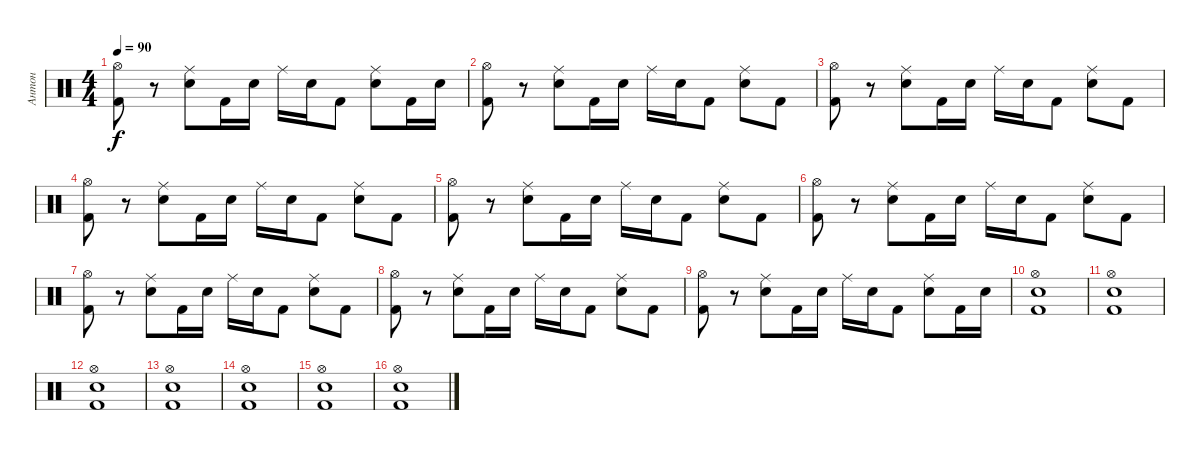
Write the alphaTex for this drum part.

\track ("Антон" "Антон") {instrument percussion}
\staff {score}
\articulation defaults
\ts (4 4)
\tempo 90
\clef neutral
\ks c
("Hi-Hat (open)" "Kick (hit) 2").8{dy f} r.8 ("Ride (middle)" "Electric Snare (hit)").8 "Kick (hit) 2".16 "Electric Snare (hit)".16 "Ride (middle)".16 "Electric Snare (hit)".16 "Kick (hit) 2".8 ("Ride (middle)" "Electric Snare (hit)").8 "Kick (hit) 2".16 "Electric Snare (hit)".16 |
("Hi-Hat (open)" "Kick (hit) 2").8 r.8 ("Ride (middle)" "Electric Snare (hit)").8 "Kick (hit) 2".16 "Electric Snare (hit)".16 "Ride (middle)".16 "Electric Snare (hit)".16 "Kick (hit) 2".8 ("Ride (middle)" "Electric Snare (hit)").8 "Kick (hit) 2".8 |
("Hi-Hat (open)" "Kick (hit) 2").8 r.8 ("Ride (middle)" "Electric Snare (hit)").8 "Kick (hit) 2".16 "Electric Snare (hit)".16 "Ride (middle)".16 "Electric Snare (hit)".16 "Kick (hit) 2".8 ("Ride (middle)" "Electric Snare (hit)").8 "Kick (hit) 2".8 |
("Hi-Hat (open)" "Kick (hit) 2").8 r.8 ("Ride (middle)" "Electric Snare (hit)").8 "Kick (hit) 2".16 "Electric Snare (hit)".16 "Ride (middle)".16 "Electric Snare (hit)".16 "Kick (hit) 2".8 ("Ride (middle)" "Electric Snare (hit)").8 "Kick (hit) 2".8 |
("Hi-Hat (open)" "Kick (hit) 2").8 r.8 ("Ride (middle)" "Electric Snare (hit)").8 "Kick (hit) 2".16 "Electric Snare (hit)".16 "Ride (middle)".16 "Electric Snare (hit)".16 "Kick (hit) 2".8 ("Ride (middle)" "Electric Snare (hit)").8 "Kick (hit) 2".8 |
("Hi-Hat (open)" "Kick (hit) 2").8 r.8 ("Ride (middle)" "Electric Snare (hit)").8 "Kick (hit) 2".16 "Electric Snare (hit)".16 "Ride (middle)".16 "Electric Snare (hit)".16 "Kick (hit) 2".8 ("Ride (middle)" "Electric Snare (hit)").8 "Kick (hit) 2".8 |
("Hi-Hat (open)" "Kick (hit) 2").8 r.8 ("Ride (middle)" "Electric Snare (hit)").8 "Kick (hit) 2".16 "Electric Snare (hit)".16 "Ride (middle)".16 "Electric Snare (hit)".16 "Kick (hit) 2".8 ("Ride (middle)" "Electric Snare (hit)").8 "Kick (hit) 2".8 |
("Hi-Hat (open)" "Kick (hit) 2").8 r.8 ("Ride (middle)" "Electric Snare (hit)").8 "Kick (hit) 2".16 "Electric Snare (hit)".16 "Ride (middle)".16 "Electric Snare (hit)".16 "Kick (hit) 2".8 ("Ride (middle)" "Electric Snare (hit)").8 "Kick (hit) 2".8 |
("Hi-Hat (open)" "Kick (hit) 2").8 r.8 ("Ride (middle)" "Electric Snare (hit)").8 "Kick (hit) 2".16 "Electric Snare (hit)".16 "Ride (middle)".16 "Electric Snare (hit)".16 "Kick (hit) 2".8 ("Ride (middle)" "Electric Snare (hit)").8 "Kick (hit) 2".16 "Electric Snare (hit)".16 |
("Hi-Hat (open)" "Electric Snare (hit)" "Kick (hit) 2").1 |
("Hi-Hat (open)" "Electric Snare (hit)" "Kick (hit) 2").1 |
("Hi-Hat (open)" "Electric Snare (hit)" "Kick (hit) 2").1 |
("Hi-Hat (open)" "Electric Snare (hit)" "Kick (hit) 2").1 |
("Hi-Hat (open)" "Electric Snare (hit)" "Kick (hit) 2").1 |
("Hi-Hat (open)" "Electric Snare (hit)" "Kick (hit) 2").1 |
("Hi-Hat (open)" "Electric Snare (hit)" "Kick (hit) 2").1
